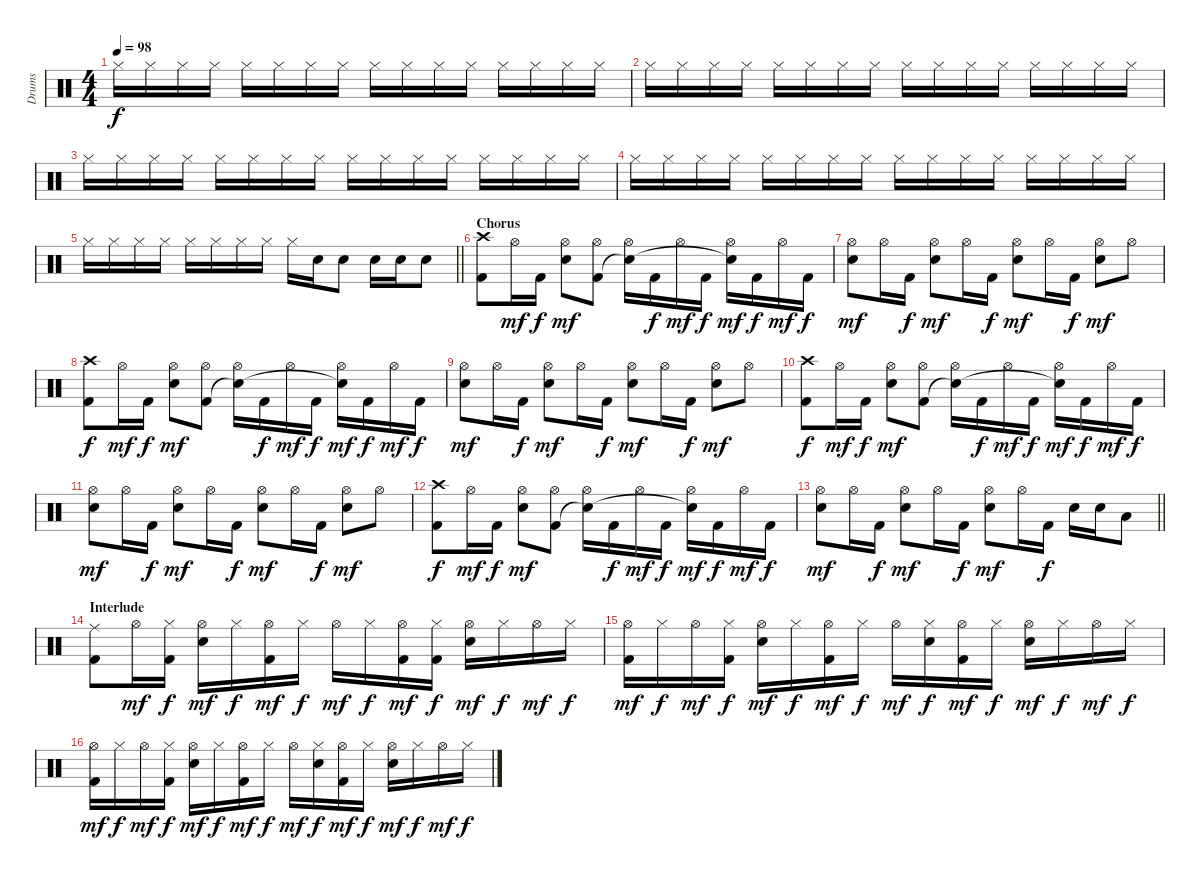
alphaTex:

\track ("Drums" "Drums") {instrument percussion}
\staff {score}
\articulation defaults
\ts (4 4)
\tempo 98
\clef neutral
\ks c "Hi-Hat (closed)".16{dy f} "Hi-Hat (closed)".16 "Hi-Hat (closed)".16 "Hi-Hat (closed)".16 "Hi-Hat (closed)".16 "Hi-Hat (closed)".16 "Hi-Hat (closed)".16 "Hi-Hat (closed)".16 "Hi-Hat (closed)".16 "Hi-Hat (closed)".16 "Hi-Hat (closed)".16 "Hi-Hat (closed)".16 "Hi-Hat (closed)".16 "Hi-Hat (closed)".16 "Hi-Hat (closed)".16 "Hi-Hat (closed)".16
|
"Hi-Hat (closed)".16 "Hi-Hat (closed)".16 "Hi-Hat (closed)".16 "Hi-Hat (closed)".16 "Hi-Hat (closed)".16 "Hi-Hat (closed)".16 "Hi-Hat (closed)".16 "Hi-Hat (closed)".16 "Hi-Hat (closed)".16 "Hi-Hat (closed)".16 "Hi-Hat (closed)".16 "Hi-Hat (closed)".16 "Hi-Hat (closed)".16 "Hi-Hat (closed)".16 "Hi-Hat (closed)".16 "Hi-Hat (closed)".16 |
"Hi-Hat (closed)".16 "Hi-Hat (closed)".16 "Hi-Hat (closed)".16 "Hi-Hat (closed)".16 "Hi-Hat (closed)".16 "Hi-Hat (closed)".16 "Hi-Hat (closed)".16 "Hi-Hat (closed)".16 "Hi-Hat (closed)".16 "Hi-Hat (closed)".16 "Hi-Hat (closed)".16 "Hi-Hat (closed)".16 "Hi-Hat (closed)".16 "Hi-Hat (closed)".16 "Hi-Hat (closed)".16 "Hi-Hat (closed)".16 |
"Hi-Hat (closed)".16 "Hi-Hat (closed)".16 "Hi-Hat (closed)".16 "Hi-Hat (closed)".16 "Hi-Hat (closed)".16 "Hi-Hat (closed)".16 "Hi-Hat (closed)".16 "Hi-Hat (closed)".16 "Hi-Hat (closed)".16 "Hi-Hat (closed)".16 "Hi-Hat (closed)".16 "Hi-Hat (closed)".16 "Hi-Hat (closed)".16 "Hi-Hat (closed)".16 "Hi-Hat (closed)".16 "Hi-Hat (closed)".16 |
\barLineRight lightlight "Hi-Hat (closed)".16 "Hi-Hat (closed)".16 "Hi-Hat (closed)".16 "Hi-Hat (closed)".16 "Hi-Hat (closed)".16 "Hi-Hat (closed)".16 "Hi-Hat (closed)".16 "Hi-Hat (closed)".16 "Hi-Hat (closed)".16 "Electric Snare (hit)".16 "Electric Snare (hit)".8 "Electric Snare (hit)".16 "Electric Snare (hit)".16 "Electric Snare (hit)".8
|
\section ("" "Chorus")
("Crash high (hit)" "Kick (hit) 2").8 "Hi-Hat (open)".16{dy mf} "Kick (hit) 2".16{dy f} ("Hi-Hat (open)" "Electric Snare (hit)").8{dy mf} ("Hi-Hat (open)" "Kick (hit) 2").8 ("Hi-Hat (open)" "Snare (hit)"{t}).16 "Kick (hit) 2".16{dy f} "Hi-Hat (open)".16{dy mf} "Kick (hit) 2".16{dy f} ("Hi-Hat (open)" "Snare (hit)"{t}).16{dy mf} "Kick (hit) 2".16{dy f} "Hi-Hat (open)".16{dy mf} "Kick (hit) 2".16{dy f} |
("Hi-Hat (open)" "Electric Snare (hit)").8{dy mf} "Hi-Hat (open)".16 "Kick (hit) 2".16{dy f} ("Hi-Hat (open)" "Electric Snare (hit)").8{dy mf} "Hi-Hat (open)".16 "Kick (hit) 2".16{dy f} ("Hi-Hat (open)" "Electric Snare (hit)").8{dy mf} "Hi-Hat (open)".16 "Kick (hit) 2".16{dy f} ("Hi-Hat (open)" "Electric Snare (hit)").8{dy mf} "Hi-Hat (open)".8 |
("Crash high (hit)" "Kick (hit) 2").8{dy f} "Hi-Hat (open)".16{dy mf} "Kick (hit) 2".16{dy f} ("Hi-Hat (open)" "Electric Snare (hit)").8{dy mf} ("Hi-Hat (open)" "Kick (hit) 2").8 ("Hi-Hat (open)" "Snare (hit)"{t}).16 "Kick (hit) 2".16{dy f} "Hi-Hat (open)".16{dy mf} "Kick (hit) 2".16{dy f} ("Hi-Hat (open)" "Snare (hit)"{t}).16{dy mf} "Kick (hit) 2".16{dy f} "Hi-Hat (open)".16{dy mf} "Kick (hit) 2".16{dy f} |
("Hi-Hat (open)" "Electric Snare (hit)").8{dy mf} "Hi-Hat (open)".16 "Kick (hit) 2".16{dy f} ("Hi-Hat (open)" "Electric Snare (hit)").8{dy mf} "Hi-Hat (open)".16 "Kick (hit) 2".16{dy f} ("Hi-Hat (open)" "Electric Snare (hit)").8{dy mf} "Hi-Hat (open)".16 "Kick (hit) 2".16{dy f} ("Hi-Hat (open)" "Electric Snare (hit)").8{dy mf} "Hi-Hat (open)".8 |
("Crash high (hit)" "Kick (hit) 2").8{dy f} "Hi-Hat (open)".16{dy mf} "Kick (hit) 2".16{dy f} ("Hi-Hat (open)" "Electric Snare (hit)").8{dy mf} ("Hi-Hat (open)" "Kick (hit) 2").8 ("Hi-Hat (open)" "Snare (hit)"{t}).16 "Kick (hit) 2".16{dy f} "Hi-Hat (open)".16{dy mf} "Kick (hit) 2".16{dy f} ("Hi-Hat (open)" "Snare (hit)"{t}).16{dy mf} "Kick (hit) 2".16{dy f} "Hi-Hat (open)".16{dy mf} "Kick (hit) 2".16{dy f} |
("Hi-Hat (open)" "Electric Snare (hit)").8{dy mf} "Hi-Hat (open)".16 "Kick (hit) 2".16{dy f} ("Hi-Hat (open)" "Electric Snare (hit)").8{dy mf} "Hi-Hat (open)".16 "Kick (hit) 2".16{dy f} ("Hi-Hat (open)" "Electric Snare (hit)").8{dy mf} "Hi-Hat (open)".16 "Kick (hit) 2".16{dy f} ("Hi-Hat (open)" "Electric Snare (hit)").8{dy mf} "Hi-Hat (open)".8 |
("Crash high (hit)" "Kick (hit) 2").8{dy f} "Hi-Hat (open)".16{dy mf} "Kick (hit) 2".16{dy f} ("Hi-Hat (open)" "Electric Snare (hit)").8{dy mf} ("Hi-Hat (open)" "Kick (hit) 2").8 ("Hi-Hat (open)" "Snare (hit)"{t}).16 "Kick (hit) 2".16{dy f} "Hi-Hat (open)".16{dy mf} "Kick (hit) 2".16{dy f} ("Hi-Hat (open)" "Snare (hit)"{t}).16{dy mf} "Kick (hit) 2".16{dy f} "Hi-Hat (open)".16{dy mf} "Kick (hit) 2".16{dy f} |
\barLineRight lightlight
("Hi-Hat (open)" "Electric Snare (hit)").8{dy mf} "Hi-Hat (open)".16 "Kick (hit) 2".16{dy f} ("Hi-Hat (open)" "Electric Snare (hit)").8{dy mf} "Hi-Hat (open)".16 "Kick (hit) 2".16{dy f} ("Hi-Hat (open)" "Electric Snare (hit)").8{dy mf} "Hi-Hat (open)".16 "Kick (hit) 2".16{dy f} "Electric Snare (hit)".16 "Electric Snare (hit)".16 "Low Tom (hit)".8 |
\section ("" "Interlude")
("Ride (middle)" "Kick (hit) 2").8 "Hi-Hat (open)".16{dy mf} ("Hi-Hat (closed)" "Kick (hit) 2").16{dy f} ("Hi-Hat (open)" "Electric Snare (hit)").16{dy mf} "Hi-Hat (closed)".16{dy f} ("Hi-Hat (open)" "Kick (hit) 2").16{dy mf} "Hi-Hat (closed)".16{dy f} "Hi-Hat (open)".16{dy mf} "Hi-Hat (closed)".16{dy f} ("Hi-Hat (open)" "Kick (hit) 2").16{dy mf} ("Hi-Hat (closed)" "Kick (hit) 2").16{dy f} ("Hi-Hat (open)" "Electric Snare (hit)").16{dy mf} "Hi-Hat (closed)".16{dy f} "Hi-Hat (open)".16{dy mf} "Hi-Hat (closed)".16{dy f} |
("Hi-Hat (open)" "Kick (hit) 2").16{dy mf} "Hi-Hat (closed)".16{dy f} "Hi-Hat (open)".16{dy mf} ("Hi-Hat (closed)" "Kick (hit) 2").16{dy f} ("Hi-Hat (open)" "Electric Snare (hit)").16{dy mf} "Hi-Hat (closed)".16{dy f} ("Hi-Hat (open)" "Kick (hit) 2").16{dy mf} "Hi-Hat (closed)".16{dy f} "Hi-Hat (open)".16{dy mf} ("Hi-Hat (closed)" "Electric Snare (hit)").16{dy f} ("Hi-Hat (open)" "Kick (hit) 2").16{dy mf} "Hi-Hat (closed)".16{dy f} ("Hi-Hat (open)" "Electric Snare (hit)").16{dy mf} "Hi-Hat (closed)".16{dy f} "Hi-Hat (open)".16{dy mf} "Hi-Hat (closed)".16{dy f} |
("Hi-Hat (open)" "Kick (hit) 2").16{dy mf} "Hi-Hat (closed)".16{dy f} "Hi-Hat (open)".16{dy mf} ("Hi-Hat (closed)" "Kick (hit) 2").16{dy f} ("Hi-Hat (open)" "Electric Snare (hit)").16{dy mf} "Hi-Hat (closed)".16{dy f} ("Hi-Hat (open)" "Kick (hit) 2").16{dy mf} "Hi-Hat (closed)".16{dy f} "Hi-Hat (open)".16{dy mf} ("Hi-Hat (closed)" "Electric Snare (hit)").16{dy f} ("Hi-Hat (open)" "Kick (hit) 2").16{dy mf} "Hi-Hat (closed)".16{dy f} ("Hi-Hat (open)" "Electric Snare (hit)").16{dy mf} "Hi-Hat (closed)".16{dy f} "Hi-Hat (open)".16{dy mf} "Hi-Hat (closed)".16{dy f}
